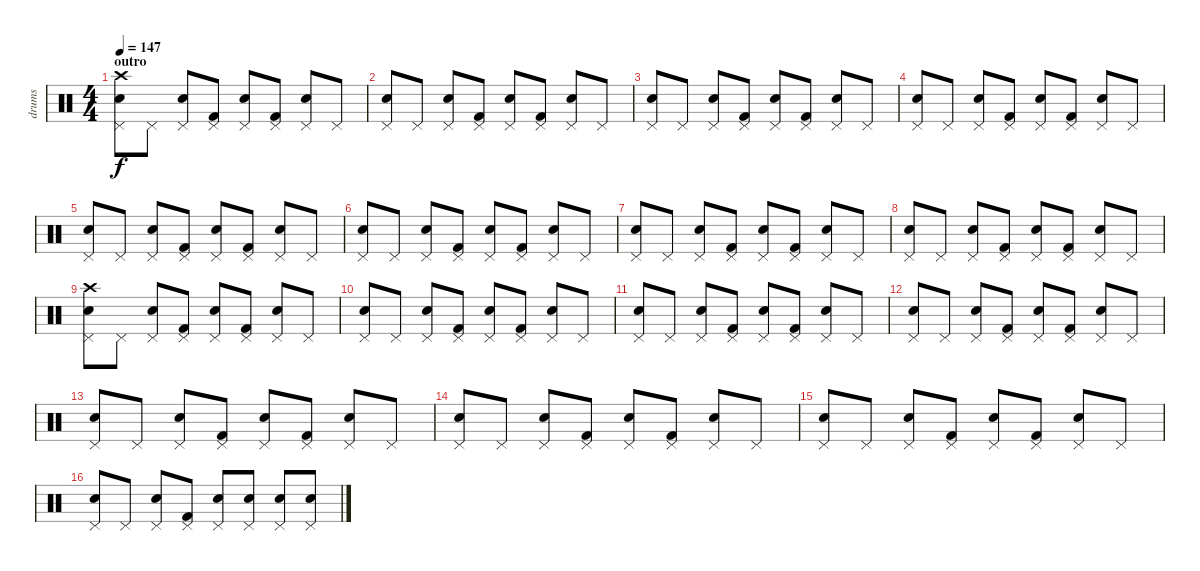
\track ("drums" "drums") {instrument percussion}
\staff {score}
\articulation defaults
\ts (4 4)
\section ("" "outro")
\tempo 147
\clef neutral
\ks c
("Crash high (hit)" "Snare (hit) 2" "Pedal Hi-Hat (hit)").8{dy f} "Pedal Hi-Hat (hit)".8 ("Snare (hit) 2" "Pedal Hi-Hat (hit)").8 ("Kick (hit) 2" "Pedal Hi-Hat (hit)").8 ("Snare (hit) 2" "Pedal Hi-Hat (hit)").8 ("Kick (hit) 2" "Pedal Hi-Hat (hit)").8 ("Snare (hit) 2" "Pedal Hi-Hat (hit)").8 "Pedal Hi-Hat (hit)".8 |
("Snare (hit) 2" "Pedal Hi-Hat (hit)").8 "Pedal Hi-Hat (hit)".8 ("Snare (hit) 2" "Pedal Hi-Hat (hit)").8 ("Kick (hit) 2" "Pedal Hi-Hat (hit)").8 ("Snare (hit) 2" "Pedal Hi-Hat (hit)").8 ("Kick (hit) 2" "Pedal Hi-Hat (hit)").8 ("Snare (hit) 2" "Pedal Hi-Hat (hit)").8 "Pedal Hi-Hat (hit)".8 |
("Snare (hit) 2" "Pedal Hi-Hat (hit)").8 "Pedal Hi-Hat (hit)".8 ("Snare (hit) 2" "Pedal Hi-Hat (hit)").8 ("Kick (hit) 2" "Pedal Hi-Hat (hit)").8 ("Snare (hit) 2" "Pedal Hi-Hat (hit)").8 ("Kick (hit) 2" "Pedal Hi-Hat (hit)").8 ("Snare (hit) 2" "Pedal Hi-Hat (hit)").8 "Pedal Hi-Hat (hit)".8 |
("Snare (hit) 2" "Pedal Hi-Hat (hit)").8 "Pedal Hi-Hat (hit)".8 ("Snare (hit) 2" "Pedal Hi-Hat (hit)").8 ("Kick (hit) 2" "Pedal Hi-Hat (hit)").8 ("Snare (hit) 2" "Pedal Hi-Hat (hit)").8 ("Kick (hit) 2" "Pedal Hi-Hat (hit)").8 ("Snare (hit) 2" "Pedal Hi-Hat (hit)").8 "Pedal Hi-Hat (hit)".8 |
("Snare (hit) 2" "Pedal Hi-Hat (hit)").8 "Pedal Hi-Hat (hit)".8 ("Snare (hit) 2" "Pedal Hi-Hat (hit)").8 ("Kick (hit) 2" "Pedal Hi-Hat (hit)").8 ("Snare (hit) 2" "Pedal Hi-Hat (hit)").8 ("Kick (hit) 2" "Pedal Hi-Hat (hit)").8 ("Snare (hit) 2" "Pedal Hi-Hat (hit)").8 "Pedal Hi-Hat (hit)".8 |
("Snare (hit) 2" "Pedal Hi-Hat (hit)").8 "Pedal Hi-Hat (hit)".8 ("Snare (hit) 2" "Pedal Hi-Hat (hit)").8 ("Kick (hit) 2" "Pedal Hi-Hat (hit)").8 ("Snare (hit) 2" "Pedal Hi-Hat (hit)").8 ("Kick (hit) 2" "Pedal Hi-Hat (hit)").8 ("Snare (hit) 2" "Pedal Hi-Hat (hit)").8 "Pedal Hi-Hat (hit)".8 |
("Snare (hit) 2" "Pedal Hi-Hat (hit)").8 "Pedal Hi-Hat (hit)".8 ("Snare (hit) 2" "Pedal Hi-Hat (hit)").8 ("Kick (hit) 2" "Pedal Hi-Hat (hit)").8 ("Snare (hit) 2" "Pedal Hi-Hat (hit)").8 ("Kick (hit) 2" "Pedal Hi-Hat (hit)").8 ("Snare (hit) 2" "Pedal Hi-Hat (hit)").8 "Pedal Hi-Hat (hit)".8 |
("Snare (hit) 2" "Pedal Hi-Hat (hit)").8 "Pedal Hi-Hat (hit)".8 ("Snare (hit) 2" "Pedal Hi-Hat (hit)").8 ("Kick (hit) 2" "Pedal Hi-Hat (hit)").8 ("Snare (hit) 2" "Pedal Hi-Hat (hit)").8 ("Kick (hit) 2" "Pedal Hi-Hat (hit)").8 ("Snare (hit) 2" "Pedal Hi-Hat (hit)").8 "Pedal Hi-Hat (hit)".8 |
("Crash high (hit)" "Snare (hit) 2" "Pedal Hi-Hat (hit)").8 "Pedal Hi-Hat (hit)".8 ("Snare (hit) 2" "Pedal Hi-Hat (hit)").8 ("Kick (hit) 2" "Pedal Hi-Hat (hit)").8 ("Snare (hit) 2" "Pedal Hi-Hat (hit)").8 ("Kick (hit) 2" "Pedal Hi-Hat (hit)").8 ("Snare (hit) 2" "Pedal Hi-Hat (hit)").8 "Pedal Hi-Hat (hit)".8 |
("Snare (hit) 2" "Pedal Hi-Hat (hit)").8 "Pedal Hi-Hat (hit)".8 ("Snare (hit) 2" "Pedal Hi-Hat (hit)").8 ("Kick (hit) 2" "Pedal Hi-Hat (hit)").8 ("Snare (hit) 2" "Pedal Hi-Hat (hit)").8 ("Kick (hit) 2" "Pedal Hi-Hat (hit)").8 ("Snare (hit) 2" "Pedal Hi-Hat (hit)").8 "Pedal Hi-Hat (hit)".8 |
("Snare (hit) 2" "Pedal Hi-Hat (hit)").8 "Pedal Hi-Hat (hit)".8 ("Snare (hit) 2" "Pedal Hi-Hat (hit)").8 ("Kick (hit) 2" "Pedal Hi-Hat (hit)").8 ("Snare (hit) 2" "Pedal Hi-Hat (hit)").8 ("Kick (hit) 2" "Pedal Hi-Hat (hit)").8 ("Snare (hit) 2" "Pedal Hi-Hat (hit)").8 "Pedal Hi-Hat (hit)".8 |
("Snare (hit) 2" "Pedal Hi-Hat (hit)").8 "Pedal Hi-Hat (hit)".8 ("Snare (hit) 2" "Pedal Hi-Hat (hit)").8 ("Kick (hit) 2" "Pedal Hi-Hat (hit)").8 ("Snare (hit) 2" "Pedal Hi-Hat (hit)").8 ("Kick (hit) 2" "Pedal Hi-Hat (hit)").8 ("Snare (hit) 2" "Pedal Hi-Hat (hit)").8 "Pedal Hi-Hat (hit)".8 |
("Snare (hit) 2" "Pedal Hi-Hat (hit)").8 "Pedal Hi-Hat (hit)".8 ("Snare (hit) 2" "Pedal Hi-Hat (hit)").8 ("Kick (hit) 2" "Pedal Hi-Hat (hit)").8 ("Snare (hit) 2" "Pedal Hi-Hat (hit)").8 ("Kick (hit) 2" "Pedal Hi-Hat (hit)").8 ("Snare (hit) 2" "Pedal Hi-Hat (hit)").8 "Pedal Hi-Hat (hit)".8 |
("Snare (hit) 2" "Pedal Hi-Hat (hit)").8 "Pedal Hi-Hat (hit)".8 ("Snare (hit) 2" "Pedal Hi-Hat (hit)").8 ("Kick (hit) 2" "Pedal Hi-Hat (hit)").8 ("Snare (hit) 2" "Pedal Hi-Hat (hit)").8 ("Kick (hit) 2" "Pedal Hi-Hat (hit)").8 ("Snare (hit) 2" "Pedal Hi-Hat (hit)").8 "Pedal Hi-Hat (hit)".8 |
("Snare (hit) 2" "Pedal Hi-Hat (hit)").8 "Pedal Hi-Hat (hit)".8 ("Snare (hit) 2" "Pedal Hi-Hat (hit)").8 ("Kick (hit) 2" "Pedal Hi-Hat (hit)").8 ("Snare (hit) 2" "Pedal Hi-Hat (hit)").8 ("Kick (hit) 2" "Pedal Hi-Hat (hit)").8 ("Snare (hit) 2" "Pedal Hi-Hat (hit)").8 "Pedal Hi-Hat (hit)".8 |
("Snare (hit) 2" "Pedal Hi-Hat (hit)").8 "Pedal Hi-Hat (hit)".8 ("Snare (hit) 2" "Pedal Hi-Hat (hit)").8 ("Kick (hit) 2" "Pedal Hi-Hat (hit)").8 ("Snare (hit) 2" "Pedal Hi-Hat (hit)").8 ("Snare (hit) 2" "Pedal Hi-Hat (hit)").8 ("Snare (hit) 2" "Pedal Hi-Hat (hit)").8 ("Snare (hit) 2" "Pedal Hi-Hat (hit)").8
